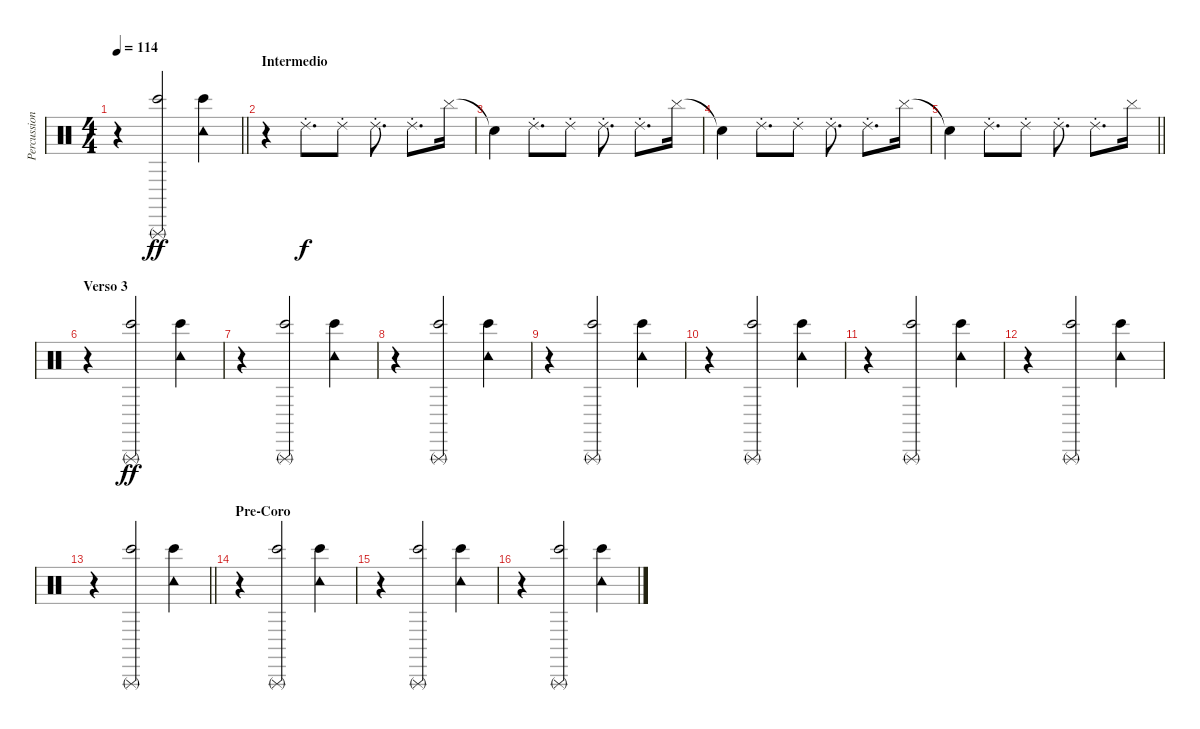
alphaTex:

\track ("Percussion" "Percussion") {instrument percussion}
\staff {score}
\articulation defaults
\ts (4 4)
\tempo 114
\clef neutral
\barLineRight lightlight
\ks c
r.4{dy ff} ("Triangle (rnute)" "Bongo High (hit)").2 ("Tambourine (hit)" "Bongo High (hit)").4 |
\section ("" "Intermedio")
r.4 "Ride (choke) 2".8{d dy f} "Ride (choke) 2".8 "Ride (choke) 2".8{d} "Ride (choke) 2".8{d} "Cymbal (hit)".16 |
"Snare (hit)"{t}.4 "Ride (choke) 2".8{d} "Ride (choke) 2".8 "Ride (choke) 2".8{d} "Ride (choke) 2".8{d} "Cymbal (hit)".16 |
"Snare (hit)"{t}.4 "Ride (choke) 2".8{d} "Ride (choke) 2".8 "Ride (choke) 2".8{d} "Ride (choke) 2".8{d} "Cymbal (hit)".16 |
\barLineRight lightlight "Snare (hit)"{t}.4 "Ride (choke) 2".8{d} "Ride (choke) 2".8 "Ride (choke) 2".8{d} "Ride (choke) 2".8{d} "Cymbal (hit)".16
|
\section ("" "Verso 3")
r.4 ("Triangle (rnute)" "Bongo High (hit)").2{dy ff} ("Tambourine (hit)" "Bongo High (hit)").4 |
r.4 ("Triangle (rnute)" "Bongo High (hit)").2 ("Tambourine (hit)" "Bongo High (hit)").4 |
r.4 ("Triangle (rnute)" "Bongo High (hit)").2 ("Tambourine (hit)" "Bongo High (hit)").4 |
r.4 ("Triangle (rnute)" "Bongo High (hit)").2 ("Tambourine (hit)" "Bongo High (hit)").4 |
r.4 ("Triangle (rnute)" "Bongo High (hit)").2 ("Tambourine (hit)" "Bongo High (hit)").4 |
r.4 ("Triangle (rnute)" "Bongo High (hit)").2 ("Tambourine (hit)" "Bongo High (hit)").4 |
r.4 ("Triangle (rnute)" "Bongo High (hit)").2 ("Tambourine (hit)" "Bongo High (hit)").4 |
\barLineRight lightlight
r.4 ("Triangle (rnute)" "Bongo High (hit)").2 ("Tambourine (hit)" "Bongo High (hit)").4 |
\section ("" "Pre-Coro")
r.4 ("Triangle (rnute)" "Bongo High (hit)").2 ("Tambourine (hit)" "Bongo High (hit)").4 |
r.4 ("Triangle (rnute)" "Bongo High (hit)").2 ("Tambourine (hit)" "Bongo High (hit)").4 |
r.4 ("Triangle (rnute)" "Bongo High (hit)").2 ("Tambourine (hit)" "Bongo High (hit)").4
